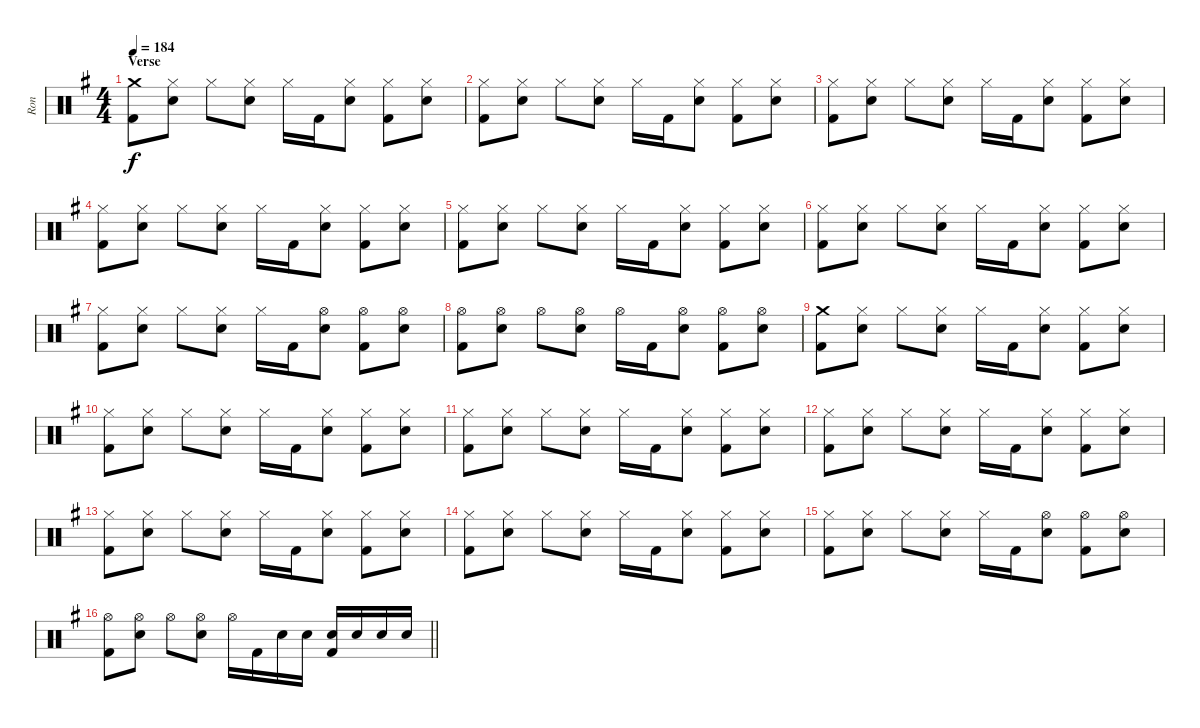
\track ("Ron" "Ron") {instrument percussion}
\staff {score}
\articulation defaults
\ts (4 4)
\section ("" "Verse")
\tempo 184
\clef neutral
\ks eminor
("Crash medium (hit)" "Kick (hit) 2").8{dy f} ("Hi-Hat (closed)" "Electric Snare (hit)").8 "Hi-Hat (closed)".8 ("Hi-Hat (closed)" "Electric Snare (hit)").8 "Hi-Hat (closed)".16 "Kick (hit) 2".16 ("Hi-Hat (closed)" "Electric Snare (hit)").8 ("Hi-Hat (closed)" "Kick (hit) 2").8 ("Hi-Hat (closed)" "Electric Snare (hit)").8 |
("Hi-Hat (closed)" "Kick (hit) 2").8 ("Hi-Hat (closed)" "Electric Snare (hit)").8 "Hi-Hat (closed)".8 ("Hi-Hat (closed)" "Electric Snare (hit)").8 "Hi-Hat (closed)".16 "Kick (hit) 2".16 ("Hi-Hat (closed)" "Electric Snare (hit)").8 ("Hi-Hat (closed)" "Kick (hit) 2").8 ("Hi-Hat (closed)" "Electric Snare (hit)").8 |
("Hi-Hat (closed)" "Kick (hit) 2").8 ("Hi-Hat (closed)" "Electric Snare (hit)").8 "Hi-Hat (closed)".8 ("Hi-Hat (closed)" "Electric Snare (hit)").8 "Hi-Hat (closed)".16 "Kick (hit) 2".16 ("Hi-Hat (closed)" "Electric Snare (hit)").8 ("Hi-Hat (closed)" "Kick (hit) 2").8 ("Hi-Hat (closed)" "Electric Snare (hit)").8 |
("Hi-Hat (closed)" "Kick (hit) 2").8 ("Hi-Hat (closed)" "Electric Snare (hit)").8 "Hi-Hat (closed)".8 ("Hi-Hat (closed)" "Electric Snare (hit)").8 "Hi-Hat (closed)".16 "Kick (hit) 2".16 ("Hi-Hat (closed)" "Electric Snare (hit)").8 ("Hi-Hat (closed)" "Kick (hit) 2").8 ("Hi-Hat (closed)" "Electric Snare (hit)").8 |
("Hi-Hat (closed)" "Kick (hit) 2").8 ("Hi-Hat (closed)" "Electric Snare (hit)").8 "Hi-Hat (closed)".8 ("Hi-Hat (closed)" "Electric Snare (hit)").8 "Hi-Hat (closed)".16 "Kick (hit) 2".16 ("Hi-Hat (closed)" "Electric Snare (hit)").8 ("Hi-Hat (closed)" "Kick (hit) 2").8 ("Hi-Hat (closed)" "Electric Snare (hit)").8 |
("Hi-Hat (closed)" "Kick (hit) 2").8 ("Hi-Hat (closed)" "Electric Snare (hit)").8 "Hi-Hat (closed)".8 ("Hi-Hat (closed)" "Electric Snare (hit)").8 "Hi-Hat (closed)".16 "Kick (hit) 2".16 ("Hi-Hat (closed)" "Electric Snare (hit)").8 ("Hi-Hat (closed)" "Kick (hit) 2").8 ("Hi-Hat (closed)" "Electric Snare (hit)").8 |
("Hi-Hat (closed)" "Kick (hit) 2").8 ("Hi-Hat (closed)" "Electric Snare (hit)").8 "Hi-Hat (closed)".8 ("Hi-Hat (closed)" "Electric Snare (hit)").8 "Hi-Hat (closed)".16 "Kick (hit) 2".16 ("Hi-Hat (open)" "Electric Snare (hit)").8 ("Hi-Hat (open)" "Kick (hit) 2").8 ("Hi-Hat (open)" "Electric Snare (hit)").8 |
("Hi-Hat (open)" "Kick (hit) 2").8 ("Hi-Hat (open)" "Electric Snare (hit)").8 "Hi-Hat (open)".8 ("Hi-Hat (open)" "Electric Snare (hit)").8 "Hi-Hat (open)".16 "Kick (hit) 2".16 ("Hi-Hat (open)" "Electric Snare (hit)").8 ("Hi-Hat (open)" "Kick (hit) 2").8 ("Hi-Hat (open)" "Electric Snare (hit)").8 |
("Crash medium (hit)" "Kick (hit) 2").8 ("Hi-Hat (closed)" "Electric Snare (hit)").8 "Hi-Hat (closed)".8 ("Hi-Hat (closed)" "Electric Snare (hit)").8 "Hi-Hat (closed)".16 "Kick (hit) 2".16 ("Hi-Hat (closed)" "Electric Snare (hit)").8 ("Hi-Hat (closed)" "Kick (hit) 2").8 ("Hi-Hat (closed)" "Electric Snare (hit)").8 |
("Hi-Hat (closed)" "Kick (hit) 2").8 ("Hi-Hat (closed)" "Electric Snare (hit)").8 "Hi-Hat (closed)".8 ("Hi-Hat (closed)" "Electric Snare (hit)").8 "Hi-Hat (closed)".16 "Kick (hit) 2".16 ("Hi-Hat (closed)" "Electric Snare (hit)").8 ("Hi-Hat (closed)" "Kick (hit) 2").8 ("Hi-Hat (closed)" "Electric Snare (hit)").8 |
("Hi-Hat (closed)" "Kick (hit) 2").8 ("Hi-Hat (closed)" "Electric Snare (hit)").8 "Hi-Hat (closed)".8 ("Hi-Hat (closed)" "Electric Snare (hit)").8 "Hi-Hat (closed)".16 "Kick (hit) 2".16 ("Hi-Hat (closed)" "Electric Snare (hit)").8 ("Hi-Hat (closed)" "Kick (hit) 2").8 ("Hi-Hat (closed)" "Electric Snare (hit)").8 |
("Hi-Hat (closed)" "Kick (hit) 2").8 ("Hi-Hat (closed)" "Electric Snare (hit)").8 "Hi-Hat (closed)".8 ("Hi-Hat (closed)" "Electric Snare (hit)").8 "Hi-Hat (closed)".16 "Kick (hit) 2".16 ("Hi-Hat (closed)" "Electric Snare (hit)").8 ("Hi-Hat (closed)" "Kick (hit) 2").8 ("Hi-Hat (closed)" "Electric Snare (hit)").8 |
("Hi-Hat (closed)" "Kick (hit) 2").8 ("Hi-Hat (closed)" "Electric Snare (hit)").8 "Hi-Hat (closed)".8 ("Hi-Hat (closed)" "Electric Snare (hit)").8 "Hi-Hat (closed)".16 "Kick (hit) 2".16 ("Hi-Hat (closed)" "Electric Snare (hit)").8 ("Hi-Hat (closed)" "Kick (hit) 2").8 ("Hi-Hat (closed)" "Electric Snare (hit)").8 |
("Hi-Hat (closed)" "Kick (hit) 2").8 ("Hi-Hat (closed)" "Electric Snare (hit)").8 "Hi-Hat (closed)".8 ("Hi-Hat (closed)" "Electric Snare (hit)").8 "Hi-Hat (closed)".16 "Kick (hit) 2".16 ("Hi-Hat (closed)" "Electric Snare (hit)").8 ("Hi-Hat (closed)" "Kick (hit) 2").8 ("Hi-Hat (closed)" "Electric Snare (hit)").8 |
("Hi-Hat (closed)" "Kick (hit) 2").8 ("Hi-Hat (closed)" "Electric Snare (hit)").8 "Hi-Hat (closed)".8 ("Hi-Hat (closed)" "Electric Snare (hit)").8 "Hi-Hat (closed)".16 "Kick (hit) 2".16 ("Hi-Hat (open)" "Electric Snare (hit)").8 ("Hi-Hat (open)" "Kick (hit) 2").8 ("Hi-Hat (open)" "Electric Snare (hit)").8 |
\barLineRight lightlight
("Hi-Hat (open)" "Kick (hit) 2").8 ("Hi-Hat (open)" "Electric Snare (hit)").8 "Hi-Hat (open)".8 ("Hi-Hat (open)" "Electric Snare (hit)").8 "Hi-Hat (open)".16 "Kick (hit) 2".16 "Electric Snare (hit)".16 "Electric Snare (hit)".16 ("Electric Snare (hit)" "Kick (hit) 2").16 "Electric Snare (hit)".16 "Electric Snare (hit)".16 "Electric Snare (hit)".16
